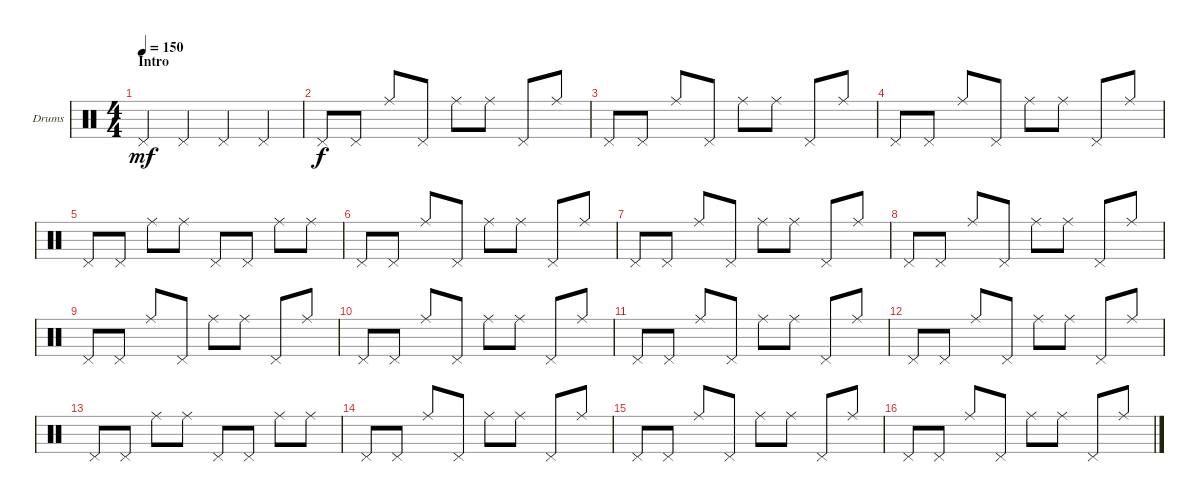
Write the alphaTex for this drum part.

\defaultSystemsLayout 4
\bracketExtendMode groupsimilarinstruments
\firstSystemTrackNameOrientation horizontal
\otherSystemsTrackNameOrientation horizontal
\track ("Nazar" "Drums") {instrument percussion}
\staff {score}
\articulation defaults
\ts (4 4)
\section ("" "Intro")
\tempo 150
\clef neutral
\ks c "Pedal Hi-Hat (hit)".4{dy mf} "Pedal Hi-Hat (hit)".4 "Pedal Hi-Hat (hit)".4 "Pedal Hi-Hat (hit)".4
|
"Pedal Hi-Hat (hit)".8{dy f} "Pedal Hi-Hat (hit)".8 "Ride (middle)".8 "Pedal Hi-Hat (hit)".8 "Ride (middle)".8 "Ride (middle)".8 "Pedal Hi-Hat (hit)".8 "Ride (middle)".8 |
"Pedal Hi-Hat (hit)".8 "Pedal Hi-Hat (hit)".8 "Ride (middle)".8 "Pedal Hi-Hat (hit)".8 "Ride (middle)".8 "Ride (middle)".8 "Pedal Hi-Hat (hit)".8 "Ride (middle)".8 |
"Pedal Hi-Hat (hit)".8 "Pedal Hi-Hat (hit)".8 "Ride (middle)".8 "Pedal Hi-Hat (hit)".8 "Ride (middle)".8 "Ride (middle)".8 "Pedal Hi-Hat (hit)".8 "Ride (middle)".8 |
"Pedal Hi-Hat (hit)".8 "Pedal Hi-Hat (hit)".8 "Ride (middle)".8 "Ride (middle)".8 "Pedal Hi-Hat (hit)".8 "Pedal Hi-Hat (hit)".8 "Ride (middle)".8 "Ride (middle)".8 |
"Pedal Hi-Hat (hit)".8 "Pedal Hi-Hat (hit)".8 "Ride (middle)".8 "Pedal Hi-Hat (hit)".8 "Ride (middle)".8 "Ride (middle)".8 "Pedal Hi-Hat (hit)".8 "Ride (middle)".8 |
"Pedal Hi-Hat (hit)".8 "Pedal Hi-Hat (hit)".8 "Ride (middle)".8 "Pedal Hi-Hat (hit)".8 "Ride (middle)".8 "Ride (middle)".8 "Pedal Hi-Hat (hit)".8 "Ride (middle)".8 |
"Pedal Hi-Hat (hit)".8 "Pedal Hi-Hat (hit)".8 "Ride (middle)".8 "Pedal Hi-Hat (hit)".8 "Ride (middle)".8 "Ride (middle)".8 "Pedal Hi-Hat (hit)".8 "Ride (middle)".8 |
"Pedal Hi-Hat (hit)".8 "Pedal Hi-Hat (hit)".8 "Ride (middle)".8 "Pedal Hi-Hat (hit)".8 "Ride (middle)".8 "Ride (middle)".8 "Pedal Hi-Hat (hit)".8 "Ride (middle)".8 |
"Pedal Hi-Hat (hit)".8 "Pedal Hi-Hat (hit)".8 "Ride (middle)".8 "Pedal Hi-Hat (hit)".8 "Ride (middle)".8 "Ride (middle)".8 "Pedal Hi-Hat (hit)".8 "Ride (middle)".8 |
"Pedal Hi-Hat (hit)".8 "Pedal Hi-Hat (hit)".8 "Ride (middle)".8 "Pedal Hi-Hat (hit)".8 "Ride (middle)".8 "Ride (middle)".8 "Pedal Hi-Hat (hit)".8 "Ride (middle)".8 |
"Pedal Hi-Hat (hit)".8 "Pedal Hi-Hat (hit)".8 "Ride (middle)".8 "Pedal Hi-Hat (hit)".8 "Ride (middle)".8 "Ride (middle)".8 "Pedal Hi-Hat (hit)".8 "Ride (middle)".8 |
"Pedal Hi-Hat (hit)".8 "Pedal Hi-Hat (hit)".8 "Ride (middle)".8 "Ride (middle)".8 "Pedal Hi-Hat (hit)".8 "Pedal Hi-Hat (hit)".8 "Ride (middle)".8 "Ride (middle)".8 |
"Pedal Hi-Hat (hit)".8 "Pedal Hi-Hat (hit)".8 "Ride (middle)".8 "Pedal Hi-Hat (hit)".8 "Ride (middle)".8 "Ride (middle)".8 "Pedal Hi-Hat (hit)".8 "Ride (middle)".8 |
"Pedal Hi-Hat (hit)".8 "Pedal Hi-Hat (hit)".8 "Ride (middle)".8 "Pedal Hi-Hat (hit)".8 "Ride (middle)".8 "Ride (middle)".8 "Pedal Hi-Hat (hit)".8 "Ride (middle)".8 |
"Pedal Hi-Hat (hit)".8 "Pedal Hi-Hat (hit)".8 "Ride (middle)".8 "Pedal Hi-Hat (hit)".8 "Ride (middle)".8 "Ride (middle)".8 "Pedal Hi-Hat (hit)".8 "Ride (middle)".8
